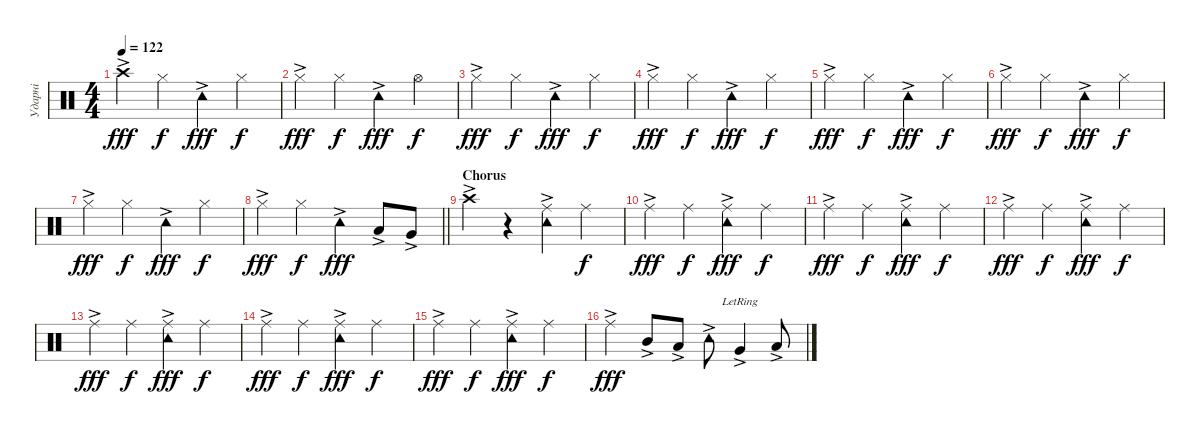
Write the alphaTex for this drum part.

\track ("Ударні" "Ударні") {instrument percussion}
\staff {score}
\articulation defaults
\ts (4 4)
\tempo 122
\clef neutral
\ks c "Crash high (hit)"{ac}.4{dy fff} "Hi-Hat (closed)".4{dy f} "Tambourine (hit)"{ac}.4{dy fff} "Hi-Hat (closed)".4{dy f}
|
"Hi-Hat (closed)"{ac}.4{dy fff} "Hi-Hat (closed)".4{dy f} "Tambourine (hit)"{ac}.4{dy fff} "Hi-Hat (open)".4{dy f} |
"Hi-Hat (closed)"{ac}.4{dy fff} "Hi-Hat (closed)".4{dy f} "Tambourine (hit)"{ac}.4{dy fff} "Hi-Hat (closed)".4{dy f} |
"Hi-Hat (closed)"{ac}.4{dy fff} "Hi-Hat (closed)".4{dy f} "Tambourine (hit)"{ac}.4{dy fff} "Hi-Hat (closed)".4{dy f} |
"Hi-Hat (closed)"{ac}.4{dy fff} "Hi-Hat (closed)".4{dy f} "Tambourine (hit)"{ac}.4{dy fff} "Hi-Hat (closed)".4{dy f} |
"Hi-Hat (closed)"{ac}.4{dy fff} "Hi-Hat (closed)".4{dy f} "Tambourine (hit)"{ac}.4{dy fff} "Hi-Hat (closed)".4{dy f} |
"Hi-Hat (closed)"{ac}.4{dy fff} "Hi-Hat (closed)".4{dy f} "Tambourine (hit)"{ac}.4{dy fff} "Hi-Hat (closed)".4{dy f} |
\barLineRight lightlight "Hi-Hat (closed)"{ac}.4{dy fff} "Hi-Hat (closed)".4{dy f} "Tambourine (hit)"{ac}.4{dy fff} "Low Tom (hit)"{ac}.8 "Very Low Tom (hit)"{ac}.8
|
\section ("" "Chorus")
"Crash high (hit)"{ac}.4 r.4 ("Ride (middle)" "Tambourine (hit)"{ac}).4 "Ride (middle)".4{dy f} |
"Ride (middle)"{ac}.4{dy fff} "Ride (middle)".4{dy f} ("Ride (middle)" "Tambourine (hit)"{ac}).4{dy fff} "Ride (middle)".4{dy f} |
"Ride (middle)"{ac}.4{dy fff} "Ride (middle)".4{dy f} ("Ride (middle)" "Tambourine (hit)"{ac}).4{dy fff} "Ride (middle)".4{dy f} |
"Ride (middle)"{ac}.4{dy fff} "Ride (middle)".4{dy f} ("Ride (middle)" "Tambourine (hit)"{ac}).4{dy fff} "Ride (middle)".4{dy f} |
"Ride (middle)"{ac}.4{dy fff} "Ride (middle)".4{dy f} ("Ride (middle)" "Tambourine (hit)"{ac}).4{dy fff} "Ride (middle)".4{dy f} |
"Ride (middle)"{ac}.4{dy fff} "Ride (middle)".4{dy f} ("Ride (middle)" "Tambourine (hit)"{ac}).4{dy fff} "Ride (middle)".4{dy f} |
"Ride (middle)"{ac}.4{dy fff} "Ride (middle)".4{dy f} ("Ride (middle)" "Tambourine (hit)"{ac}).4{dy fff} "Ride (middle)".4{dy f} |
"Ride (middle)"{ac}.4{dy fff} "Mid Tom (hit)"{ac}.8 "Low Tom (hit)"{ac}.8 "Tambourine (hit)"{ac}.8 "Very Low Tom (hit)"{ac lr}.4 "Low Floor Tom (hit)"{ac}.8
